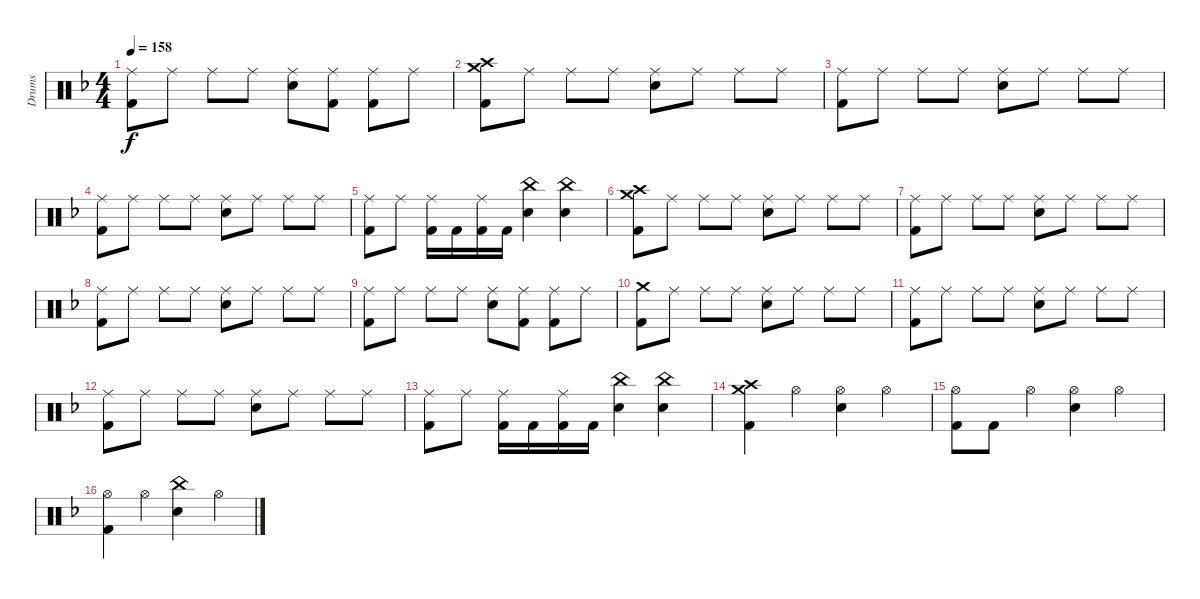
\track ("Drums" "Drums") {instrument percussion}
\staff {score}
\articulation defaults
\ts (4 4)
\tempo 158
\clef neutral
\ks f
("Ride (middle)" "Kick (hit) 2").8{dy f} "Ride (middle)".8 "Ride (middle)".8 "Ride (middle)".8 ("Ride (middle)" "Snare (hit) 2").8 ("Ride (middle)" "Kick (hit) 2").8 ("Ride (middle)" "Kick (hit) 2").8 "Ride (middle)".8 |
("Crash medium (hit)" "Crash high (hit)" "Kick (hit) 2").8 "Ride (middle)".8 "Ride (middle)".8 "Ride (middle)".8 ("Ride (middle)" "Snare (hit) 2").8 "Ride (middle)".8 "Ride (middle)".8 "Ride (middle)".8 |
("Ride (middle)" "Kick (hit) 2").8 "Ride (middle)".8 "Ride (middle)".8 "Ride (middle)".8 ("Ride (middle)" "Snare (hit) 2").8 "Ride (middle)".8 "Ride (middle)".8 "Ride (middle)".8 |
("Ride (middle)" "Kick (hit) 2").8 "Ride (middle)".8 "Ride (middle)".8 "Ride (middle)".8 ("Ride (middle)" "Snare (hit) 2").8 "Ride (middle)".8 "Ride (middle)".8 "Ride (middle)".8 |
("Ride (middle)" "Kick (hit) 2").8 "Ride (middle)".8 ("Ride (middle)" "Kick (hit) 2").16 "Kick (hit) 2".16 ("Ride (middle)" "Kick (hit) 2").16 "Kick (hit) 2".16 ("China (hit)" "Snare (hit) 2").4 ("China (hit)" "Snare (hit) 2").4 |
("Crash medium (hit)" "Crash high (hit)" "Kick (hit) 2").8 "Ride (middle)".8 "Ride (middle)".8 "Ride (middle)".8 ("Ride (middle)" "Snare (hit) 2").8 "Ride (middle)".8 "Ride (middle)".8 "Ride (middle)".8 |
("Ride (middle)" "Kick (hit) 2").8 "Ride (middle)".8 "Ride (middle)".8 "Ride (middle)".8 ("Ride (middle)" "Snare (hit) 2").8 "Ride (middle)".8 "Ride (middle)".8 "Ride (middle)".8 |
("Ride (middle)" "Kick (hit) 2").8 "Ride (middle)".8 "Ride (middle)".8 "Ride (middle)".8 ("Ride (middle)" "Snare (hit) 2").8 "Ride (middle)".8 "Ride (middle)".8 "Ride (middle)".8 |
("Ride (middle)" "Kick (hit) 2").8 "Ride (middle)".8 "Ride (middle)".8 "Ride (middle)".8 ("Ride (middle)" "Snare (hit) 2").8 ("Ride (middle)" "Kick (hit) 2").8 ("Ride (middle)" "Kick (hit) 2").8 "Ride (middle)".8 |
("Crash medium (hit)" "Kick (hit) 2").8 "Ride (middle)".8 "Ride (middle)".8 "Ride (middle)".8 ("Ride (middle)" "Snare (hit) 2").8 "Ride (middle)".8 "Ride (middle)".8 "Ride (middle)".8 |
("Ride (middle)" "Kick (hit) 2").8 "Ride (middle)".8 "Ride (middle)".8 "Ride (middle)".8 ("Ride (middle)" "Snare (hit) 2").8 "Ride (middle)".8 "Ride (middle)".8 "Ride (middle)".8 |
("Ride (middle)" "Kick (hit) 2").8 "Ride (middle)".8 "Ride (middle)".8 "Ride (middle)".8 ("Ride (middle)" "Snare (hit) 2").8 "Ride (middle)".8 "Ride (middle)".8 "Ride (middle)".8 |
("Ride (middle)" "Kick (hit) 2").8 "Ride (middle)".8 ("Ride (middle)" "Kick (hit) 2").16 "Kick (hit) 2".16 ("Ride (middle)" "Kick (hit) 2").16 "Kick (hit) 2".16 ("China (hit)" "Snare (hit) 2").4 ("China (hit)" "Snare (hit) 2").4 |
("Crash medium (hit)" "Crash high (hit)" "Kick (hit) 2").4 "Hi-Hat (open)".4 ("Hi-Hat (open)" "Snare (hit) 2").4 "Hi-Hat (open)".4 |
("Hi-Hat (open)" "Kick (hit) 2").8 "Kick (hit) 2".8 "Hi-Hat (open)".4 ("Hi-Hat (open)" "Snare (hit) 2").4 "Hi-Hat (open)".4 |
("Hi-Hat (open)" "Kick (hit) 2").4 "Hi-Hat (open)".4 ("China (hit)" "Snare (hit) 2").4 "Hi-Hat (open)".4
